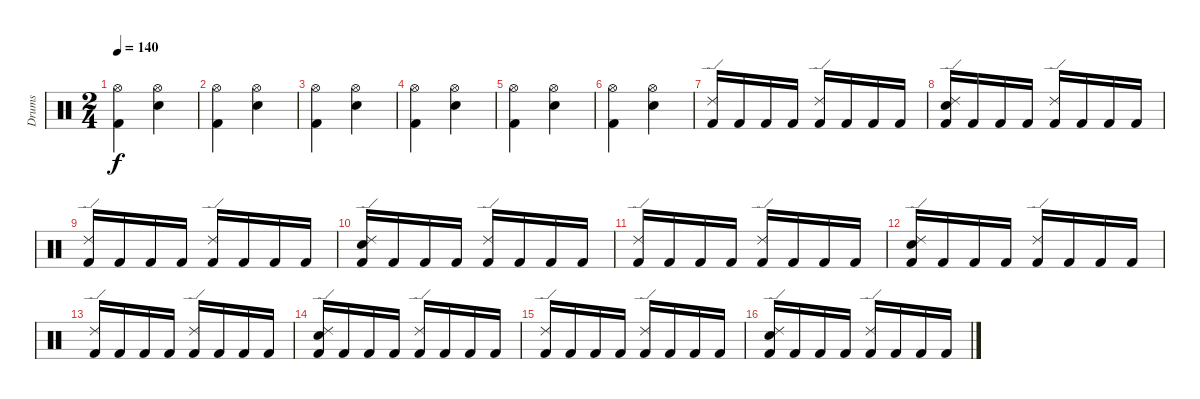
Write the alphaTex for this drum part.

\track ("Drums" "Drums") {instrument percussion}
\staff {score}
\articulation defaults
\ts (2 4)
\tempo 140
\clef neutral
\ks c
("Kick (hit) 2" "Hi-Hat (open)").4{dy f} ("Electric Snare (hit)" "Hi-Hat (open)").4 |
("Kick (hit) 2" "Hi-Hat (open)").4 ("Electric Snare (hit)" "Hi-Hat (open)").4 |
("Kick (hit) 2" "Hi-Hat (open)").4 ("Electric Snare (hit)" "Hi-Hat (open)").4 |
("Kick (hit) 2" "Hi-Hat (open)").4 ("Electric Snare (hit)" "Hi-Hat (open)").4 |
("Kick (hit) 2" "Hi-Hat (open)").4 ("Electric Snare (hit)" "Hi-Hat (open)").4 |
("Kick (hit) 2" "Hi-Hat (open)").4 ("Electric Snare (hit)" "Hi-Hat (open)").4 |
("Kick (hit) 2" "Ride (edge) 2").16 "Kick (hit) 2".16 "Kick (hit) 2".16 "Kick (hit) 2".16 ("Kick (hit) 2" "Ride (edge) 2").16 "Kick (hit) 2".16 "Kick (hit) 2".16 "Kick (hit) 2".16 |
("Kick (hit) 2" "Electric Snare (hit)" "Ride (edge) 2").16 "Kick (hit) 2".16 "Kick (hit) 2".16 "Kick (hit) 2".16 ("Kick (hit) 2" "Ride (edge) 2").16 "Kick (hit) 2".16 "Kick (hit) 2".16 "Kick (hit) 2".16 |
("Kick (hit) 2" "Ride (edge) 2").16 "Kick (hit) 2".16 "Kick (hit) 2".16 "Kick (hit) 2".16 ("Kick (hit) 2" "Ride (edge) 2").16 "Kick (hit) 2".16 "Kick (hit) 2".16 "Kick (hit) 2".16 |
("Kick (hit) 2" "Electric Snare (hit)" "Ride (edge) 2").16 "Kick (hit) 2".16 "Kick (hit) 2".16 "Kick (hit) 2".16 ("Kick (hit) 2" "Ride (edge) 2").16 "Kick (hit) 2".16 "Kick (hit) 2".16 "Kick (hit) 2".16 |
("Kick (hit) 2" "Ride (edge) 2").16 "Kick (hit) 2".16 "Kick (hit) 2".16 "Kick (hit) 2".16 ("Kick (hit) 2" "Ride (edge) 2").16 "Kick (hit) 2".16 "Kick (hit) 2".16 "Kick (hit) 2".16 |
("Kick (hit) 2" "Electric Snare (hit)" "Ride (edge) 2").16 "Kick (hit) 2".16 "Kick (hit) 2".16 "Kick (hit) 2".16 ("Kick (hit) 2" "Ride (edge) 2").16 "Kick (hit) 2".16 "Kick (hit) 2".16 "Kick (hit) 2".16 |
("Kick (hit) 2" "Ride (edge) 2").16 "Kick (hit) 2".16 "Kick (hit) 2".16 "Kick (hit) 2".16 ("Kick (hit) 2" "Ride (edge) 2").16 "Kick (hit) 2".16 "Kick (hit) 2".16 "Kick (hit) 2".16 |
("Kick (hit) 2" "Electric Snare (hit)" "Ride (edge) 2").16 "Kick (hit) 2".16 "Kick (hit) 2".16 "Kick (hit) 2".16 ("Kick (hit) 2" "Ride (edge) 2").16 "Kick (hit) 2".16 "Kick (hit) 2".16 "Kick (hit) 2".16 |
("Kick (hit) 2" "Ride (edge) 2").16 "Kick (hit) 2".16 "Kick (hit) 2".16 "Kick (hit) 2".16 ("Kick (hit) 2" "Ride (edge) 2").16 "Kick (hit) 2".16 "Kick (hit) 2".16 "Kick (hit) 2".16 |
("Kick (hit) 2" "Electric Snare (hit)" "Ride (edge) 2").16 "Kick (hit) 2".16 "Kick (hit) 2".16 "Kick (hit) 2".16 ("Kick (hit) 2" "Ride (edge) 2").16 "Kick (hit) 2".16 "Kick (hit) 2".16 "Kick (hit) 2".16
